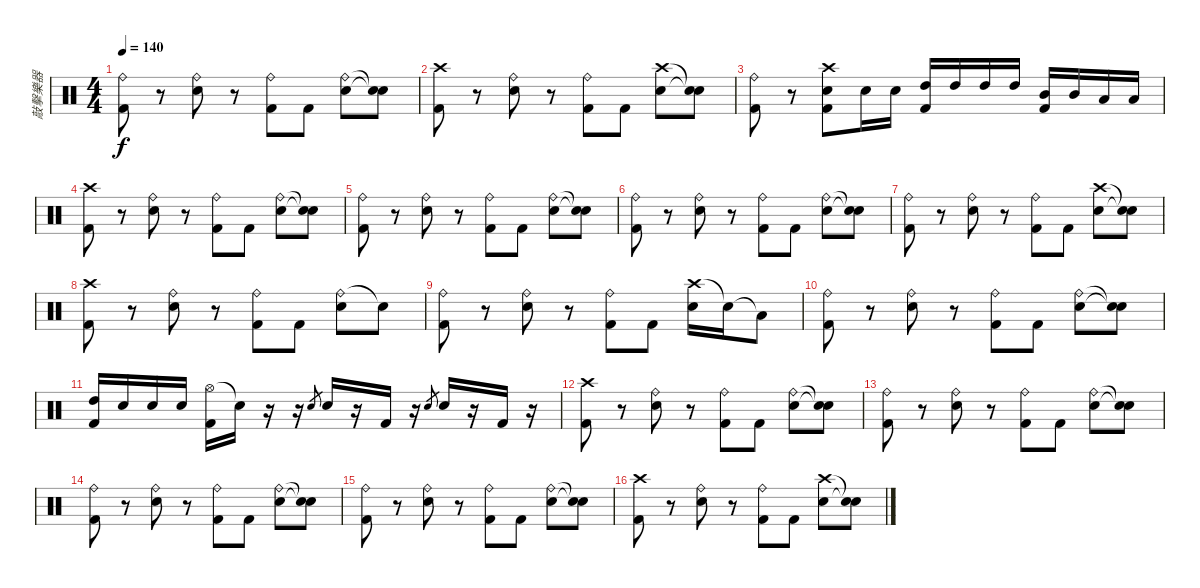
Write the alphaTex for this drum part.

\track ("敲擊樂器" "敲擊樂器") {instrument percussion}
\staff {score}
\articulation defaults
\ts (4 4)
\tempo 140
\clef neutral
\ks c
("Ride (bell)" "Kick (hit) 2").8{dy f} r.8 ("Ride (bell)" "Snare (hit) 2").8 r.8 ("Ride (bell)" "Kick (hit) 2").8 "Kick (hit) 2".8 ("Ride (bell)" "Snare (hit) 2").8 ("Snare (hit)"{t} "Snare (hit)"{t}).8 |
("Crash high (hit)" "Kick (hit) 2").8 r.8 ("Ride (bell)" "Snare (hit) 2").8 r.8 ("Ride (bell)" "Kick (hit) 2").8 "Kick (hit) 2".8 ("Crash high (hit)" "Snare (hit) 2").8 ("Snare (hit)"{t} "Snare (hit)"{t}).8 |
("Ride (bell)" "Kick (hit) 2").8 r.8 ("Crash high (hit)" "Snare (hit) 2" "Kick (hit) 2").8 "Snare (hit) 2".16 "Snare (hit) 2".16 ("High Tom (hit)" "Kick (hit) 2").16 "High Tom (hit)".16 "High Tom (hit)".16 "High Tom (hit)".16 ("Mid Tom (hit)" "Kick (hit) 2").16 "Mid Tom (hit)".16 "Low Tom (hit)".16 "Low Tom (hit)".16 |
("Crash high (hit)" "Kick (hit) 2").8 r.8 ("Ride (bell)" "Snare (hit) 2").8 r.8 ("Ride (bell)" "Kick (hit) 2").8 "Kick (hit) 2".8 ("Ride (bell)" "Snare (hit) 2").8 ("Snare (hit)"{t} "Snare (hit)"{t}).8 |
("Ride (bell)" "Kick (hit) 2").8 r.8 ("Ride (bell)" "Snare (hit) 2").8 r.8 ("Ride (bell)" "Kick (hit) 2").8 "Kick (hit) 2".8 ("Ride (bell)" "Snare (hit) 2").8 ("Snare (hit)"{t} "Snare (hit)"{t}).8 |
("Ride (bell)" "Kick (hit) 2").8 r.8 ("Ride (bell)" "Snare (hit) 2").8 r.8 ("Ride (bell)" "Kick (hit) 2").8 "Kick (hit) 2".8 ("Ride (bell)" "Snare (hit) 2").8 ("Snare (hit)"{t} "Snare (hit)"{t}).8 |
("Ride (bell)" "Kick (hit) 2").8 r.8 ("Ride (bell)" "Snare (hit) 2").8 r.8 ("Ride (bell)" "Kick (hit) 2").8 "Kick (hit) 2".8 ("Crash high (hit)" "Snare (hit) 2").8 ("Snare (hit)"{t} "Snare (hit)"{t}).8 |
("Crash high (hit)" "Kick (hit) 2").8 r.8 ("Ride (bell)" "Snare (hit) 2").8 r.8 ("Ride (bell)" "Kick (hit) 2").8 "Kick (hit) 2".8 ("Ride (bell)" "Snare (hit) 2").8 "Snare (hit)"{t}.8 |
("Ride (bell)" "Kick (hit) 2").8 r.8 ("Ride (bell)" "Snare (hit) 2").8 r.8 ("Ride (bell)" "Kick (hit) 2").8 "Kick (hit) 2".8 ("Crash high (hit)" "Snare (hit) 2").16 "Snare (hit) 2"{t}.16 "Low Tom (hit)"{t}.8 |
("Ride (bell)" "Kick (hit) 2").8 r.8 ("Ride (bell)" "Snare (hit) 2").8 r.8 ("Ride (bell)" "Kick (hit) 2").8 "Kick (hit) 2".8 ("Ride (bell)" "Snare (hit) 2").8 ("Snare (hit)"{t} "Snare (hit)"{t}).8 |
("High Tom (hit)" "Kick (hit) 2").16 "Snare (hit) 2".16 "Snare (hit) 2".16 "Snare (hit) 2".16 ("Hi-Hat (open)" "Kick (hit) 2").16 "Snare (hit)"{t}.16 r.16 r.16 "Snare (hit) 2".8{gr} "Snare (hit) 2".16 r.16 "Kick (hit) 2".16 r.16 "Snare (hit) 2".8{gr} "Snare (hit) 2".16 r.16 "Kick (hit) 2".16 r.16 |
("Crash high (hit)" "Kick (hit) 2").8 r.8 ("Ride (bell)" "Snare (hit) 2").8 r.8 ("Ride (bell)" "Kick (hit) 2").8 "Kick (hit) 2".8 ("Ride (bell)" "Snare (hit) 2").8 ("Snare (hit)"{t} "Snare (hit)"{t}).8 |
("Ride (bell)" "Kick (hit) 2").8 r.8 ("Ride (bell)" "Snare (hit) 2").8 r.8 ("Ride (bell)" "Kick (hit) 2").8 "Kick (hit) 2".8 ("Ride (bell)" "Snare (hit) 2").8 ("Snare (hit)"{t} "Snare (hit)"{t}).8 |
("Ride (bell)" "Kick (hit) 2").8 r.8 ("Ride (bell)" "Snare (hit) 2").8 r.8 ("Ride (bell)" "Kick (hit) 2").8 "Kick (hit) 2".8 ("Ride (bell)" "Snare (hit) 2").8 ("Snare (hit)"{t} "Snare (hit)"{t}).8 |
("Ride (bell)" "Kick (hit) 2").8 r.8 ("Ride (bell)" "Snare (hit) 2").8 r.8 ("Ride (bell)" "Kick (hit) 2").8 "Kick (hit) 2".8 ("Ride (bell)" "Snare (hit) 2").8 ("Snare (hit)"{t} "Snare (hit)"{t}).8 |
("Crash high (hit)" "Kick (hit) 2").8 r.8 ("Ride (bell)" "Snare (hit) 2").8 r.8 ("Ride (bell)" "Kick (hit) 2").8 "Kick (hit) 2".8 ("Crash high (hit)" "Snare (hit) 2").8 ("Snare (hit)"{t} "Snare (hit)"{t}).8
